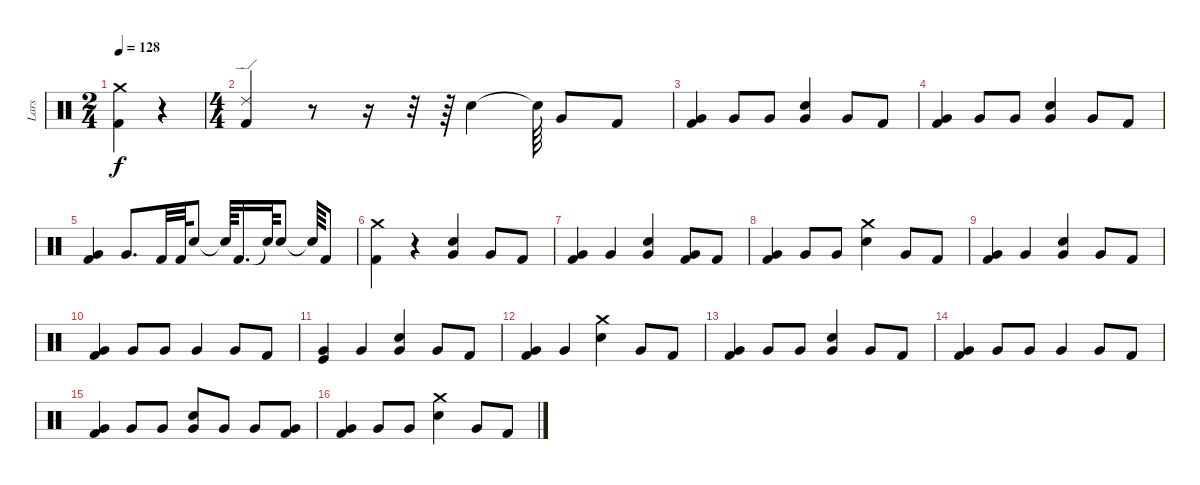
\track ("Lars" "Lars") {instrument percussion}
\staff {score}
\articulation defaults
\ts (2 4)
\tempo 128
\clef neutral
\ks c
("Kick (hit) 2" "Crash medium (hit)").4{dy f} r.4 |
\ts (4 4)
("Ride (edge) 2" "Kick (hit) 2").4 r.8 r.16 r.32 r.64 "Snare (hit) 2".4 "Snare (hit)"{t}.64 "Very Low Tom (hit)".8 "Kick (hit) 2".8 |
("Very Low Tom (hit)" "Kick (hit) 2").4 "Very Low Tom (hit)".8 "Very Low Tom (hit)".8 ("Snare (hit) 2" "Very Low Tom (hit)").4 "Very Low Tom (hit)".8 "Kick (hit) 2".8 |
("Very Low Tom (hit)" "Kick (hit) 2").4 "Very Low Tom (hit)".8 "Very Low Tom (hit)".8 ("Snare (hit) 2" "Very Low Tom (hit)").4 "Very Low Tom (hit)".8 "Kick (hit) 2".8 |
("Kick (hit) 2" "Very Low Tom (hit)").4 "Very Low Tom (hit)".8{d} "Kick (hit) 2".32 "Kick (hit) 2".64 "Snare (hit) 2".8 "Snare (hit)"{t}.64 "Kick (hit) 2".16{d} "Snare (hit)"{t}.64 "Snare (hit) 2".8 "Snare (hit)"{t}.64 "Kick (hit) 2".8 |
("Kick (hit) 2" "Crash medium (hit)").4 r.4 ("Snare (hit) 2" "Very Low Tom (hit)").4 "Very Low Tom (hit)".8 "Kick (hit) 2".8 |
("Kick (hit) 2" "Very Low Tom (hit)").4 "Very Low Tom (hit)".4 ("Snare (hit) 2" "Very Low Tom (hit)").4 ("Kick (hit) 2" "Very Low Tom (hit)").8 "Kick (hit) 2".8 |
("Kick (hit) 2" "Very Low Tom (hit)").4 "Very Low Tom (hit)".8 "Very Low Tom (hit)".8 ("Crash medium (hit)" "Snare (hit) 2").4 "Very Low Tom (hit)".8 "Kick (hit) 2".8 |
("Kick (hit) 2" "Very Low Tom (hit)").4 "Very Low Tom (hit)".4 ("Snare (hit) 2" "Very Low Tom (hit)").4 "Very Low Tom (hit)".8 "Kick (hit) 2".8 |
("Very Low Tom (hit)" "Kick (hit) 2").4 "Very Low Tom (hit)".8 "Very Low Tom (hit)".8 "Very Low Tom (hit)".4 "Very Low Tom (hit)".8 "Kick (hit) 2".8 |
("Kick (hit)" "Very Low Tom (hit)").4 "Very Low Tom (hit)".4 ("Snare (hit) 2" "Very Low Tom (hit)").4 "Very Low Tom (hit)".8 "Kick (hit) 2".8 |
("Kick (hit) 2" "Very Low Tom (hit)").4 "Very Low Tom (hit)".4 ("Crash medium (hit)" "Snare (hit) 2").4 "Very Low Tom (hit)".8 "Kick (hit) 2".8 |
("Kick (hit) 2" "Very Low Tom (hit)").4 "Very Low Tom (hit)".8 "Very Low Tom (hit)".8 ("Snare (hit) 2" "Very Low Tom (hit)").4 "Very Low Tom (hit)".8 "Kick (hit) 2".8 |
("Very Low Tom (hit)" "Kick (hit) 2").4 "Very Low Tom (hit)".8 "Very Low Tom (hit)".8 "Very Low Tom (hit)".4 "Very Low Tom (hit)".8 "Kick (hit) 2".8 |
("Very Low Tom (hit)" "Kick (hit) 2").4 "Very Low Tom (hit)".8 "Very Low Tom (hit)".8 ("Snare (hit) 2" "Very Low Tom (hit)").8 "Very Low Tom (hit)".8 "Very Low Tom (hit)".8 ("Kick (hit) 2" "Very Low Tom (hit)").8 |
("Kick (hit) 2" "Very Low Tom (hit)").4 "Very Low Tom (hit)".8 "Very Low Tom (hit)".8 ("Crash medium (hit)" "Snare (hit) 2").4 "Very Low Tom (hit)".8 "Kick (hit) 2".8
